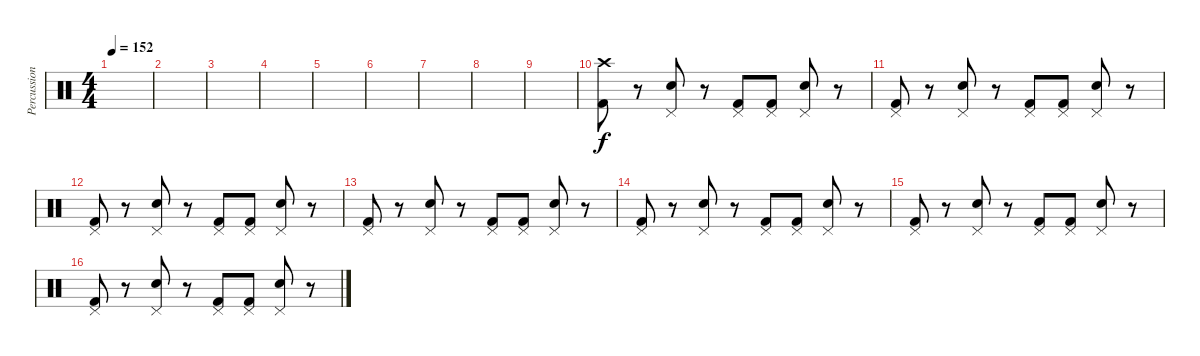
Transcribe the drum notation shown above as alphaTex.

\track ("Percussion" "Percussion") {instrument percussion}
\staff {score}
\articulation defaults
\ts (4 4)
\tempo 152
\clef neutral
\ks c
|
|
|
|
|
|
|
|
|
("Kick (hit) 2" "Crash high (hit)").8 r.8 ("Snare (hit) 2" "Pedal Hi-Hat (hit)").8 r.8 ("Kick (hit) 2" "Pedal Hi-Hat (hit)").8 ("Kick (hit) 2" "Pedal Hi-Hat (hit)").8 ("Snare (hit) 2" "Pedal Hi-Hat (hit)").8 r.8 |
("Kick (hit) 2" "Pedal Hi-Hat (hit)").8 r.8 ("Snare (hit) 2" "Pedal Hi-Hat (hit)").8 r.8 ("Kick (hit) 2" "Pedal Hi-Hat (hit)").8 ("Kick (hit) 2" "Pedal Hi-Hat (hit)").8 ("Snare (hit) 2" "Pedal Hi-Hat (hit)").8 r.8 |
("Kick (hit) 2" "Pedal Hi-Hat (hit)").8 r.8 ("Snare (hit) 2" "Pedal Hi-Hat (hit)").8 r.8 ("Kick (hit) 2" "Pedal Hi-Hat (hit)").8 ("Kick (hit) 2" "Pedal Hi-Hat (hit)").8 ("Snare (hit) 2" "Pedal Hi-Hat (hit)").8 r.8 |
("Kick (hit) 2" "Pedal Hi-Hat (hit)").8 r.8 ("Snare (hit) 2" "Pedal Hi-Hat (hit)").8 r.8 ("Kick (hit) 2" "Pedal Hi-Hat (hit)").8 ("Kick (hit) 2" "Pedal Hi-Hat (hit)").8 ("Snare (hit) 2" "Pedal Hi-Hat (hit)").8 r.8 |
("Kick (hit) 2" "Pedal Hi-Hat (hit)").8 r.8 ("Snare (hit) 2" "Pedal Hi-Hat (hit)").8 r.8 ("Kick (hit) 2" "Pedal Hi-Hat (hit)").8 ("Kick (hit) 2" "Pedal Hi-Hat (hit)").8 ("Snare (hit) 2" "Pedal Hi-Hat (hit)").8 r.8 |
("Kick (hit) 2" "Pedal Hi-Hat (hit)").8 r.8 ("Snare (hit) 2" "Pedal Hi-Hat (hit)").8 r.8 ("Kick (hit) 2" "Pedal Hi-Hat (hit)").8 ("Kick (hit) 2" "Pedal Hi-Hat (hit)").8 ("Snare (hit) 2" "Pedal Hi-Hat (hit)").8 r.8 |
("Kick (hit) 2" "Pedal Hi-Hat (hit)").8 r.8 ("Snare (hit) 2" "Pedal Hi-Hat (hit)").8 r.8 ("Kick (hit) 2" "Pedal Hi-Hat (hit)").8 ("Kick (hit) 2" "Pedal Hi-Hat (hit)").8 ("Snare (hit) 2" "Pedal Hi-Hat (hit)").8 r.8
